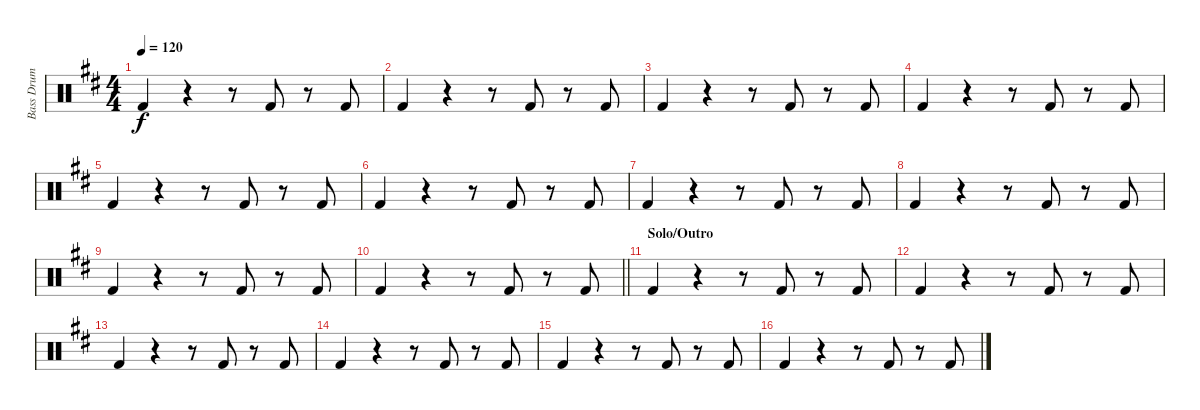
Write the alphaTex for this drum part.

\track ("Bass Drum" "Bass Drum") {instrument percussion}
\staff {score}
\articulation defaults
\ts (4 4)
\tempo 120
\clef neutral
\ks d "Kick (hit) 2".4{dy f}
r.4 r.8 "Kick (hit) 2".8 r.8 "Kick (hit) 2".8 |
"Kick (hit) 2".4 r.4 r.8 "Kick (hit) 2".8 r.8 "Kick (hit) 2".8 |
"Kick (hit) 2".4 r.4 r.8 "Kick (hit) 2".8 r.8 "Kick (hit) 2".8 |
"Kick (hit) 2".4 r.4 r.8 "Kick (hit) 2".8 r.8 "Kick (hit) 2".8 |
"Kick (hit) 2".4 r.4 r.8 "Kick (hit) 2".8 r.8 "Kick (hit) 2".8 |
"Kick (hit) 2".4 r.4 r.8 "Kick (hit) 2".8 r.8 "Kick (hit) 2".8 |
"Kick (hit) 2".4 r.4 r.8 "Kick (hit) 2".8 r.8 "Kick (hit) 2".8 |
"Kick (hit) 2".4 r.4 r.8 "Kick (hit) 2".8 r.8 "Kick (hit) 2".8 |
"Kick (hit) 2".4 r.4 r.8 "Kick (hit) 2".8 r.8 "Kick (hit) 2".8 |
\barLineRight lightlight "Kick (hit) 2".4
r.4 r.8 "Kick (hit) 2".8 r.8 "Kick (hit) 2".8 |
\section ("" "Solo/Outro")
"Kick (hit) 2".4 r.4 r.8 "Kick (hit) 2".8 r.8 "Kick (hit) 2".8 |
"Kick (hit) 2".4 r.4 r.8 "Kick (hit) 2".8 r.8 "Kick (hit) 2".8 |
"Kick (hit) 2".4 r.4 r.8 "Kick (hit) 2".8 r.8 "Kick (hit) 2".8 |
"Kick (hit) 2".4 r.4 r.8 "Kick (hit) 2".8 r.8 "Kick (hit) 2".8 |
"Kick (hit) 2".4 r.4 r.8 "Kick (hit) 2".8 r.8 "Kick (hit) 2".8 |
"Kick (hit) 2".4 r.4 r.8 "Kick (hit) 2".8 r.8 "Kick (hit) 2".8
